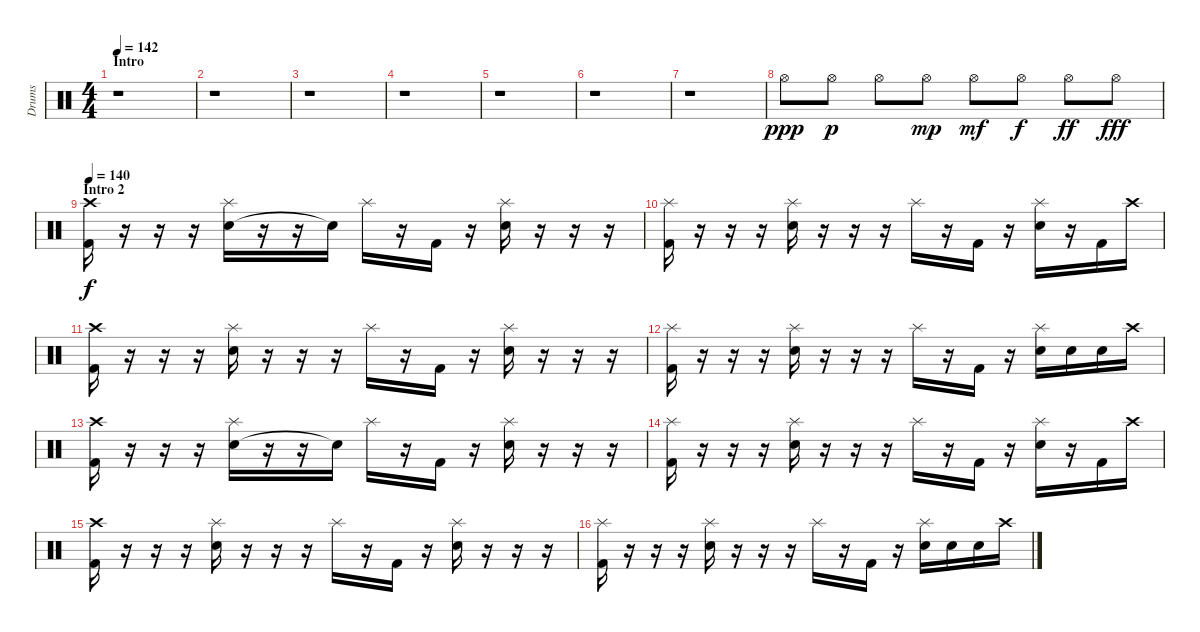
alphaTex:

\track ("Drums" "Drums") {instrument percussion}
\staff {score}
\articulation defaults
\ts (4 4)
\section ("" "Intro")
\tempo 142
\clef neutral
\ks c
r.1{dy ppp} |
r.1 |
r.1 |
r.1 |
r.1 |
r.1 |
r.1 |
"Hi-Hat (open)".8 "Hi-Hat (open)".8{dy p} "Hi-Hat (open)".8 "Hi-Hat (open)".8{dy mp} "Hi-Hat (open)".8{dy mf} "Hi-Hat (open)".8{dy f} "Hi-Hat (open)".8{dy ff} "Hi-Hat (open)".8{dy fff} |
\section ("" "Intro 2")
\tempo 140
("Kick (hit) 2" "Crash high (hit)").16{dy f} r.16 r.16 r.16 ("Snare (hit) 2" "Splash (hit)").16 r.16 r.16 "Snare (hit)"{t}.16 "Splash (hit)".16 r.16 "Kick (hit) 2".16 r.16 ("Snare (hit) 2" "Splash (hit)").16 r.16 r.16 r.16 |
("Kick (hit) 2" "Splash (hit)").16 r.16 r.16 r.16 ("Snare (hit) 2" "Splash (hit)").16 r.16 r.16 r.16 "Splash (hit)".16 r.16 "Kick (hit) 2".16 r.16 ("Snare (hit) 2" "Splash (hit)").16 r.16 "Kick (hit) 2".16 "Crash high (hit)".16 |
("Kick (hit) 2" "Crash high (hit)").16 r.16 r.16 r.16 ("Snare (hit) 2" "Splash (hit)").16 r.16 r.16 r.16 "Splash (hit)".16 r.16 "Kick (hit) 2".16 r.16 ("Snare (hit) 2" "Splash (hit)").16 r.16 r.16 r.16 |
("Kick (hit) 2" "Splash (hit)").16 r.16 r.16 r.16 ("Snare (hit) 2" "Splash (hit)").16 r.16 r.16 r.16 "Splash (hit)".16 r.16 "Kick (hit) 2".16 r.16 ("Snare (hit) 2" "Splash (hit)").16 "Snare (hit) 2".16 "Snare (hit) 2".16 "Crash high (hit)".16 |
("Kick (hit) 2" "Crash high (hit)").16 r.16 r.16 r.16 ("Snare (hit) 2" "Splash (hit)").16 r.16 r.16 "Snare (hit)"{t}.16 "Splash (hit)".16 r.16 "Kick (hit) 2".16 r.16 ("Snare (hit) 2" "Splash (hit)").16 r.16 r.16 r.16 |
("Kick (hit) 2" "Splash (hit)").16 r.16 r.16 r.16 ("Snare (hit) 2" "Splash (hit)").16 r.16 r.16 r.16 "Splash (hit)".16 r.16 "Kick (hit) 2".16 r.16 ("Snare (hit) 2" "Splash (hit)").16 r.16 "Kick (hit) 2".16 "Crash high (hit)".16 |
("Kick (hit) 2" "Crash high (hit)").16 r.16 r.16 r.16 ("Snare (hit) 2" "Splash (hit)").16 r.16 r.16 r.16 "Splash (hit)".16 r.16 "Kick (hit) 2".16 r.16 ("Snare (hit) 2" "Splash (hit)").16 r.16 r.16 r.16 |
("Kick (hit) 2" "Splash (hit)").16 r.16 r.16 r.16 ("Snare (hit) 2" "Splash (hit)").16 r.16 r.16 r.16 "Splash (hit)".16 r.16 "Kick (hit) 2".16 r.16 ("Snare (hit) 2" "Splash (hit)").16 "Snare (hit) 2".16 "Snare (hit) 2".16 "Crash high (hit)".16
